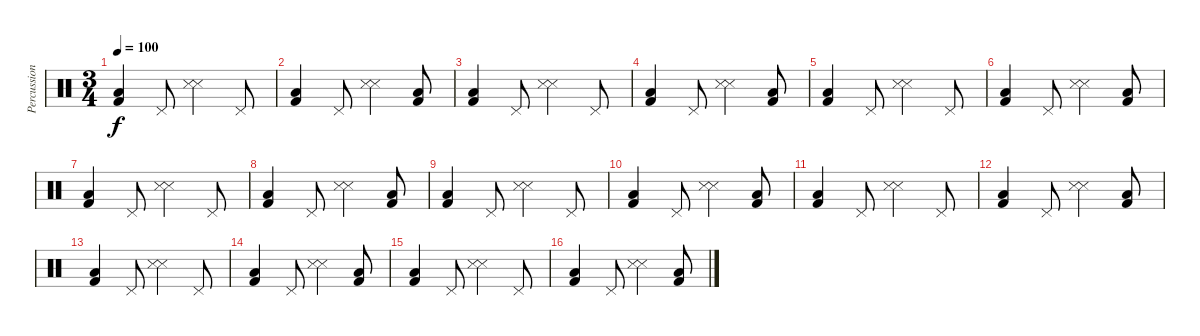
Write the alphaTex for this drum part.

\track ("Percussions" "Percussion") {instrument percussion}
\staff {score}
\articulation defaults
\ts (3 4)
\tempo 100
\clef neutral
\ks c
("Kick (hit) 2" "Low Floor Tom (hit)").4{dy f} "Pedal Hi-Hat (hit)".8 ("Snare (side stick) 3" "Snare (side stick) 3").4 "Pedal Hi-Hat (hit)".8 |
("Kick (hit) 2" "Low Floor Tom (hit)").4 "Pedal Hi-Hat (hit)".8 ("Snare (side stick) 3" "Snare (side stick) 3").4 ("Kick (hit) 2" "Low Floor Tom (hit)").8 |
("Kick (hit) 2" "Low Floor Tom (hit)").4 "Pedal Hi-Hat (hit)".8 ("Snare (side stick) 3" "Snare (side stick) 3").4 "Pedal Hi-Hat (hit)".8 |
("Kick (hit) 2" "Low Floor Tom (hit)").4 "Pedal Hi-Hat (hit)".8 ("Snare (side stick) 3" "Snare (side stick) 3").4 ("Kick (hit) 2" "Low Floor Tom (hit)").8 |
("Kick (hit) 2" "Low Floor Tom (hit)").4 "Pedal Hi-Hat (hit)".8 ("Snare (side stick) 3" "Snare (side stick) 3").4 "Pedal Hi-Hat (hit)".8 |
("Kick (hit) 2" "Low Floor Tom (hit)").4 "Pedal Hi-Hat (hit)".8 ("Snare (side stick) 3" "Snare (side stick) 3").4 ("Kick (hit) 2" "Low Floor Tom (hit)").8 |
("Kick (hit) 2" "Low Floor Tom (hit)").4 "Pedal Hi-Hat (hit)".8 ("Snare (side stick) 3" "Snare (side stick) 3").4 "Pedal Hi-Hat (hit)".8 |
("Kick (hit) 2" "Low Floor Tom (hit)").4 "Pedal Hi-Hat (hit)".8 ("Snare (side stick) 3" "Snare (side stick) 3").4 ("Kick (hit) 2" "Low Floor Tom (hit)").8 |
("Kick (hit) 2" "Low Floor Tom (hit)").4 "Pedal Hi-Hat (hit)".8 ("Snare (side stick) 3" "Snare (side stick) 3").4 "Pedal Hi-Hat (hit)".8 |
("Kick (hit) 2" "Low Floor Tom (hit)").4 "Pedal Hi-Hat (hit)".8 ("Snare (side stick) 3" "Snare (side stick) 3").4 ("Kick (hit) 2" "Low Floor Tom (hit)").8 |
("Kick (hit) 2" "Low Floor Tom (hit)").4 "Pedal Hi-Hat (hit)".8 ("Snare (side stick) 3" "Snare (side stick) 3").4 "Pedal Hi-Hat (hit)".8 |
("Kick (hit) 2" "Low Floor Tom (hit)").4 "Pedal Hi-Hat (hit)".8 ("Snare (side stick) 3" "Snare (side stick) 3").4 ("Kick (hit) 2" "Low Floor Tom (hit)").8 |
("Kick (hit) 2" "Low Floor Tom (hit)").4 "Pedal Hi-Hat (hit)".8 ("Snare (side stick) 3" "Snare (side stick) 3").4 "Pedal Hi-Hat (hit)".8 |
("Kick (hit) 2" "Low Floor Tom (hit)").4 "Pedal Hi-Hat (hit)".8 ("Snare (side stick) 3" "Snare (side stick) 3").4 ("Kick (hit) 2" "Low Floor Tom (hit)").8 |
("Kick (hit) 2" "Low Floor Tom (hit)").4 "Pedal Hi-Hat (hit)".8 ("Snare (side stick) 3" "Snare (side stick) 3").4 "Pedal Hi-Hat (hit)".8 |
("Kick (hit) 2" "Low Floor Tom (hit)").4 "Pedal Hi-Hat (hit)".8 ("Snare (side stick) 3" "Snare (side stick) 3").4 ("Kick (hit) 2" "Low Floor Tom (hit)").8
